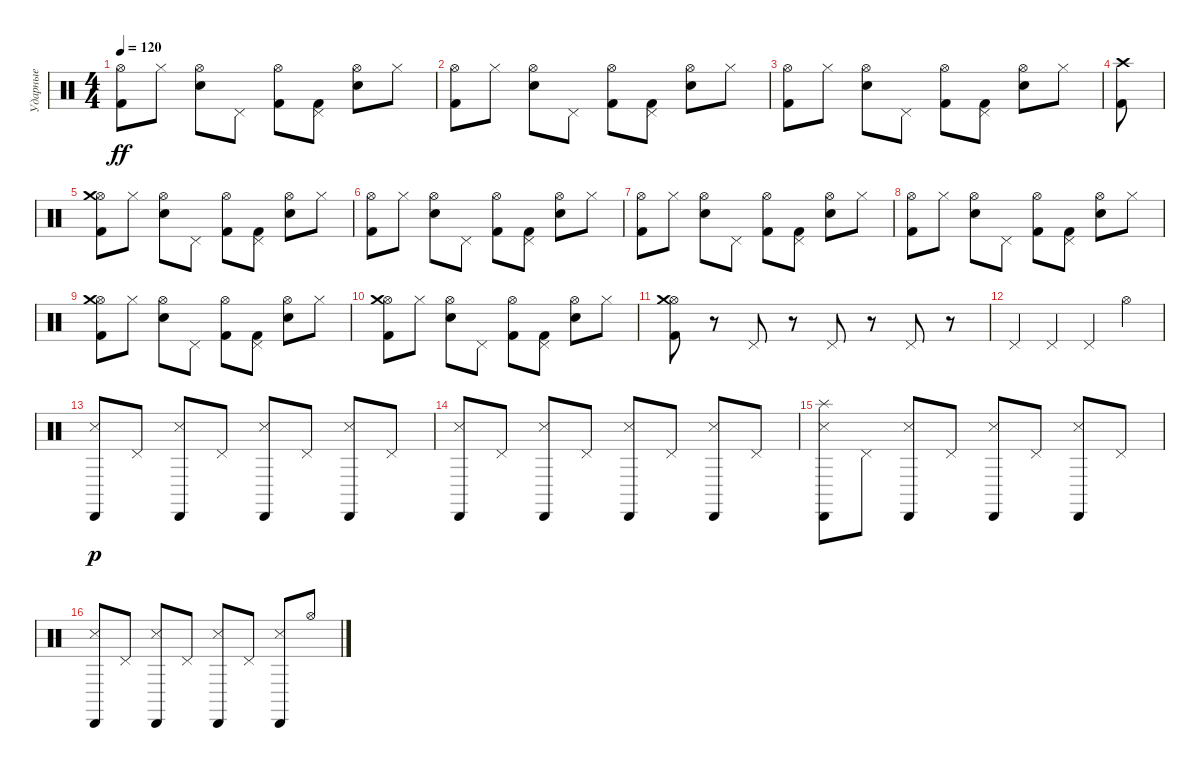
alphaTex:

\track ("Ударные" "Ударные") {instrument percussion}
\staff {score}
\articulation defaults
\ts (4 4)
\tempo 120
\clef neutral
\ks c
("Hi-Hat (open)" "Kick (hit) 2").8{dy ff} "Hi-Hat (closed)".8 ("Hi-Hat (open)" "Electric Snare (hit)").8 "Pedal Hi-Hat (hit)".8 ("Hi-Hat (open)" "Kick (hit) 2").8 ("Pedal Hi-Hat (hit)" "Kick (hit) 2").8 ("Hi-Hat (open)" "Electric Snare (hit)").8 "Hi-Hat (closed)".8 |
("Hi-Hat (open)" "Kick (hit) 2").8 "Hi-Hat (closed)".8 ("Hi-Hat (open)" "Electric Snare (hit)").8 "Pedal Hi-Hat (hit)".8 ("Hi-Hat (open)" "Kick (hit) 2").8 ("Pedal Hi-Hat (hit)" "Kick (hit) 2").8 ("Hi-Hat (open)" "Electric Snare (hit)").8 "Hi-Hat (closed)".8 |
("Hi-Hat (open)" "Kick (hit) 2").8 "Hi-Hat (closed)".8 ("Hi-Hat (open)" "Electric Snare (hit)").8 "Pedal Hi-Hat (hit)".8 ("Hi-Hat (open)" "Kick (hit) 2").8 ("Pedal Hi-Hat (hit)" "Kick (hit) 2").8 ("Hi-Hat (open)" "Electric Snare (hit)").8 "Hi-Hat (closed)".8 |
("Crash high (hit)" "Kick (hit) 2").8 |
("Hi-Hat (open)" "Crash medium (hit)" "Kick (hit) 2").8 "Hi-Hat (closed)".8 ("Hi-Hat (open)" "Electric Snare (hit)").8 "Pedal Hi-Hat (hit)".8 ("Hi-Hat (open)" "Kick (hit) 2").8 ("Pedal Hi-Hat (hit)" "Kick (hit) 2").8 ("Hi-Hat (open)" "Electric Snare (hit)").8 "Hi-Hat (closed)".8 |
("Hi-Hat (open)" "Kick (hit) 2").8 "Hi-Hat (closed)".8 ("Hi-Hat (open)" "Electric Snare (hit)").8 "Pedal Hi-Hat (hit)".8 ("Hi-Hat (open)" "Kick (hit) 2").8 ("Pedal Hi-Hat (hit)" "Kick (hit) 2").8 ("Hi-Hat (open)" "Electric Snare (hit)").8 "Hi-Hat (closed)".8 |
("Hi-Hat (open)" "Kick (hit) 2").8 "Hi-Hat (closed)".8 ("Hi-Hat (open)" "Electric Snare (hit)").8 "Pedal Hi-Hat (hit)".8 ("Hi-Hat (open)" "Kick (hit) 2").8 ("Pedal Hi-Hat (hit)" "Kick (hit) 2").8 ("Hi-Hat (open)" "Electric Snare (hit)").8 "Hi-Hat (closed)".8 |
("Hi-Hat (open)" "Kick (hit) 2").8 "Hi-Hat (closed)".8 ("Hi-Hat (open)" "Electric Snare (hit)").8 "Pedal Hi-Hat (hit)".8 ("Hi-Hat (open)" "Kick (hit) 2").8 ("Pedal Hi-Hat (hit)" "Kick (hit) 2").8 ("Hi-Hat (open)" "Electric Snare (hit)").8 "Hi-Hat (closed)".8 |
("Hi-Hat (open)" "Crash medium (hit)" "Kick (hit) 2").8 "Hi-Hat (closed)".8 ("Hi-Hat (open)" "Electric Snare (hit)").8 "Pedal Hi-Hat (hit)".8 ("Hi-Hat (open)" "Kick (hit) 2").8 ("Pedal Hi-Hat (hit)" "Kick (hit) 2").8 ("Hi-Hat (open)" "Electric Snare (hit)").8 "Hi-Hat (closed)".8 |
("Hi-Hat (open)" "Crash medium (hit)" "Kick (hit) 2").8 "Hi-Hat (closed)".8 ("Hi-Hat (open)" "Electric Snare (hit)").8 "Pedal Hi-Hat (hit)".8 ("Hi-Hat (open)" "Kick (hit) 2").8 ("Pedal Hi-Hat (hit)" "Kick (hit) 2").8 ("Hi-Hat (open)" "Electric Snare (hit)").8 "Hi-Hat (closed)".8 |
("Hi-Hat (open)" "Crash medium (hit)" "Kick (hit) 2").8 r.8 "Pedal Hi-Hat (hit)".8 r.8 "Pedal Hi-Hat (hit)".8 r.8 "Pedal Hi-Hat (hit)".8 r.8 |
"Pedal Hi-Hat (hit)".4 "Pedal Hi-Hat (hit)".4 "Pedal Hi-Hat (hit)".4 "Hi-Hat (open)".4 |
("Snare (side stick) 3" "Cabasa (hit)").8{dy p} "Pedal Hi-Hat (hit)".8 ("Snare (side stick) 3" "Cabasa (hit)").8 "Pedal Hi-Hat (hit)".8 ("Snare (side stick) 3" "Cabasa (hit)").8 "Pedal Hi-Hat (hit)".8 ("Snare (side stick) 3" "Cabasa (hit)").8 "Pedal Hi-Hat (hit)".8 |
("Snare (side stick) 3" "Cabasa (hit)").8 "Pedal Hi-Hat (hit)".8 ("Snare (side stick) 3" "Cabasa (hit)").8 "Pedal Hi-Hat (hit)".8 ("Snare (side stick) 3" "Cabasa (hit)").8 "Pedal Hi-Hat (hit)".8 ("Snare (side stick) 3" "Cabasa (hit)").8 "Pedal Hi-Hat (hit)".8 |
("Splash (hit)" "Snare (side stick) 3" "Cabasa (hit)").8 "Pedal Hi-Hat (hit)".8 ("Snare (side stick) 3" "Cabasa (hit)").8 "Pedal Hi-Hat (hit)".8 ("Snare (side stick) 3" "Cabasa (hit)").8 "Pedal Hi-Hat (hit)".8 ("Snare (side stick) 3" "Cabasa (hit)").8 "Pedal Hi-Hat (hit)".8 |
("Snare (side stick) 3" "Cabasa (hit)").8 "Pedal Hi-Hat (hit)".8 ("Snare (side stick) 3" "Cabasa (hit)").8 "Pedal Hi-Hat (hit)".8 ("Snare (side stick) 3" "Cabasa (hit)").8 "Pedal Hi-Hat (hit)".8 ("Snare (side stick) 3" "Cabasa (hit)").8 "Hi-Hat (open)".8
